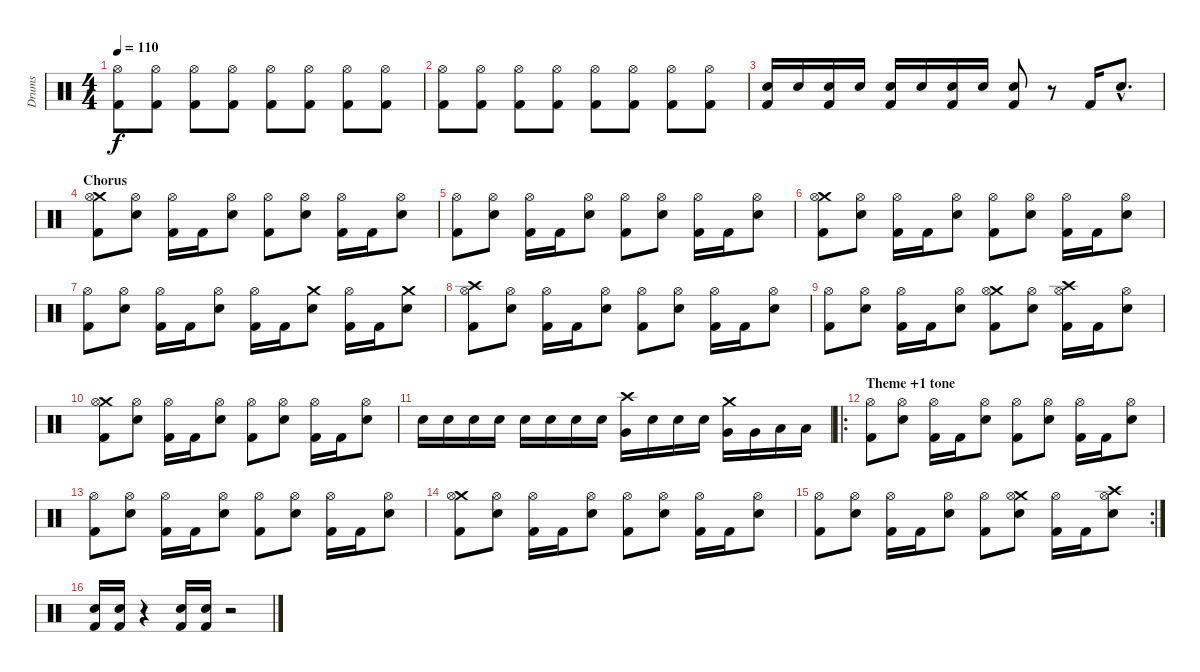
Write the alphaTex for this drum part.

\track ("Drums" "Drums") {instrument percussion}
\staff {score}
\articulation defaults
\ts (4 4)
\tempo 110
\clef neutral
\ks c
("Hi-Hat (open)" "Kick (hit) 2").8{dy f} ("Hi-Hat (open)" "Kick (hit) 2").8 ("Hi-Hat (open)" "Kick (hit) 2").8 ("Hi-Hat (open)" "Kick (hit) 2").8 ("Hi-Hat (open)" "Kick (hit) 2").8 ("Hi-Hat (open)" "Kick (hit) 2").8 ("Hi-Hat (open)" "Kick (hit) 2").8 ("Hi-Hat (open)" "Kick (hit) 2").8 |
("Hi-Hat (open)" "Kick (hit) 2").8 ("Hi-Hat (open)" "Kick (hit) 2").8 ("Hi-Hat (open)" "Kick (hit) 2").8 ("Hi-Hat (open)" "Kick (hit) 2").8 ("Hi-Hat (open)" "Kick (hit) 2").8 ("Hi-Hat (open)" "Kick (hit) 2").8 ("Hi-Hat (open)" "Kick (hit) 2").8 ("Hi-Hat (open)" "Kick (hit) 2").8 |
("Electric Snare (hit)" "Kick (hit) 2").16 "Electric Snare (hit)".16 ("Electric Snare (hit)" "Kick (hit) 2").16 "Electric Snare (hit)".16 ("Electric Snare (hit)" "Kick (hit) 2").16 "Electric Snare (hit)".16 ("Electric Snare (hit)" "Kick (hit) 2").16 "Electric Snare (hit)".16 ("Electric Snare (hit)" "Kick (hit) 2").8 r.8 "Kick (hit) 2".16 "Electric Snare (hit)"{hac}.8{d} |
\section ("" "Chorus")
("Crash medium (hit)" "Hi-Hat (open)" "Kick (hit) 2").8 ("Hi-Hat (open)" "Electric Snare (hit)").8 ("Hi-Hat (open)" "Kick (hit) 2").16 "Kick (hit) 2".16 ("Hi-Hat (open)" "Electric Snare (hit)").8 ("Hi-Hat (open)" "Kick (hit) 2").8 ("Hi-Hat (open)" "Electric Snare (hit)").8 ("Hi-Hat (open)" "Kick (hit) 2").16 "Kick (hit) 2".16 ("Hi-Hat (open)" "Electric Snare (hit)").8 |
("Hi-Hat (open)" "Kick (hit) 2").8 ("Hi-Hat (open)" "Electric Snare (hit)").8 ("Hi-Hat (open)" "Kick (hit) 2").16 "Kick (hit) 2".16 ("Hi-Hat (open)" "Electric Snare (hit)").8 ("Hi-Hat (open)" "Kick (hit) 2").8 ("Hi-Hat (open)" "Electric Snare (hit)").8 ("Hi-Hat (open)" "Kick (hit) 2").16 "Kick (hit) 2".16 ("Hi-Hat (open)" "Electric Snare (hit)").8 |
("Crash medium (hit)" "Hi-Hat (open)" "Kick (hit) 2").8 ("Hi-Hat (open)" "Electric Snare (hit)").8 ("Hi-Hat (open)" "Kick (hit) 2").16 "Kick (hit) 2".16 ("Hi-Hat (open)" "Electric Snare (hit)").8 ("Hi-Hat (open)" "Kick (hit) 2").8 ("Hi-Hat (open)" "Electric Snare (hit)").8 ("Hi-Hat (open)" "Kick (hit) 2").16 "Kick (hit) 2".16 ("Hi-Hat (open)" "Electric Snare (hit)").8 |
("Hi-Hat (open)" "Kick (hit) 2").8 ("Hi-Hat (open)" "Electric Snare (hit)").8 ("Hi-Hat (open)" "Kick (hit) 2").16 "Kick (hit) 2".16 ("Hi-Hat (open)" "Electric Snare (hit)").8 ("Hi-Hat (open)" "Kick (hit) 2").16 "Kick (hit) 2".16 ("Crash medium (hit)" "Electric Snare (hit)").8 ("Hi-Hat (open)" "Kick (hit) 2").16 "Kick (hit) 2".16 ("Crash medium (hit)" "Electric Snare (hit)").8 |
("Crash high (hit)" "Hi-Hat (open)" "Kick (hit) 2").8 ("Hi-Hat (open)" "Electric Snare (hit)").8 ("Hi-Hat (open)" "Kick (hit) 2").16 "Kick (hit) 2".16 ("Hi-Hat (open)" "Electric Snare (hit)").8 ("Hi-Hat (open)" "Kick (hit) 2").8 ("Hi-Hat (open)" "Electric Snare (hit)").8 ("Hi-Hat (open)" "Kick (hit) 2").16 "Kick (hit) 2".16 ("Hi-Hat (open)" "Electric Snare (hit)").8 |
("Hi-Hat (open)" "Kick (hit) 2").8 ("Hi-Hat (open)" "Electric Snare (hit)").8 ("Hi-Hat (open)" "Kick (hit) 2").16 "Kick (hit) 2".16 ("Hi-Hat (open)" "Electric Snare (hit)").8 ("Crash medium (hit)" "Hi-Hat (open)" "Kick (hit) 2").8 ("Hi-Hat (open)" "Electric Snare (hit)").8 ("Crash high (hit)" "Hi-Hat (open)" "Kick (hit) 2").16 "Kick (hit) 2".16 ("Hi-Hat (open)" "Electric Snare (hit)").8 |
("Crash medium (hit)" "Hi-Hat (open)" "Kick (hit) 2").8 ("Hi-Hat (open)" "Electric Snare (hit)").8 ("Hi-Hat (open)" "Kick (hit) 2").16 "Kick (hit) 2".16 ("Hi-Hat (open)" "Electric Snare (hit)").8 ("Hi-Hat (open)" "Kick (hit) 2").8 ("Hi-Hat (open)" "Electric Snare (hit)").8 ("Hi-Hat (open)" "Kick (hit) 2").16 "Kick (hit) 2".16 ("Hi-Hat (open)" "Electric Snare (hit)").8 |
"Electric Snare (hit)".16 "Electric Snare (hit)".16 "Electric Snare (hit)".16 "Electric Snare (hit)".16 "Electric Snare (hit)".16 "Electric Snare (hit)".16 "Electric Snare (hit)".16 "Electric Snare (hit)".16 ("Crash high (hit)" "Very Low Tom (hit)").16 "Electric Snare (hit)".16 "Electric Snare (hit)".16 "Electric Snare (hit)".16 ("Crash medium (hit)" "Very Low Tom (hit)").16 "Very Low Tom (hit)".16 "Low Floor Tom (hit)".16 "Low Floor Tom (hit)".16 |
\ro
\section ("" "Theme +1 tone")
("Hi-Hat (open)" "Kick (hit) 2").8 ("Hi-Hat (open)" "Electric Snare (hit)").8 ("Hi-Hat (open)" "Kick (hit) 2").16 "Kick (hit) 2".16 ("Hi-Hat (open)" "Electric Snare (hit)").8 ("Hi-Hat (open)" "Kick (hit) 2").8 ("Hi-Hat (open)" "Electric Snare (hit)").8 ("Hi-Hat (open)" "Kick (hit) 2").16 "Kick (hit) 2".16 ("Hi-Hat (open)" "Electric Snare (hit)").8 |
("Hi-Hat (open)" "Kick (hit) 2").8 ("Hi-Hat (open)" "Electric Snare (hit)").8 ("Hi-Hat (open)" "Kick (hit) 2").16 "Kick (hit) 2".16 ("Hi-Hat (open)" "Electric Snare (hit)").8 ("Hi-Hat (open)" "Kick (hit) 2").8 ("Hi-Hat (open)" "Electric Snare (hit)").8 ("Hi-Hat (open)" "Kick (hit) 2").16 "Kick (hit) 2".16 ("Hi-Hat (open)" "Electric Snare (hit)").8 |
("Crash medium (hit)" "Hi-Hat (open)" "Kick (hit) 2").8 ("Hi-Hat (open)" "Electric Snare (hit)").8 ("Hi-Hat (open)" "Kick (hit) 2").16 "Kick (hit) 2".16 ("Hi-Hat (open)" "Electric Snare (hit)").8 ("Hi-Hat (open)" "Kick (hit) 2").8 ("Hi-Hat (open)" "Electric Snare (hit)").8 ("Hi-Hat (open)" "Kick (hit) 2").16 "Kick (hit) 2".16 ("Hi-Hat (open)" "Electric Snare (hit)").8 |
\rc 2
("Hi-Hat (open)" "Kick (hit) 2").8 ("Hi-Hat (open)" "Electric Snare (hit)").8 ("Hi-Hat (open)" "Kick (hit) 2").16 "Kick (hit) 2".16 ("Hi-Hat (open)" "Electric Snare (hit)").8 ("Hi-Hat (open)" "Kick (hit) 2").8 ("Crash medium (hit)" "Hi-Hat (open)" "Electric Snare (hit)").8 ("Hi-Hat (open)" "Kick (hit) 2").16 "Kick (hit) 2".16 ("Crash high (hit)" "Hi-Hat (open)" "Electric Snare (hit)").8 |
("Electric Snare (hit)" "Kick (hit) 2").16 ("Electric Snare (hit)" "Kick (hit) 2").16 r.4 ("Electric Snare (hit)" "Kick (hit) 2").16 ("Electric Snare (hit)" "Kick (hit) 2").16 r.2
